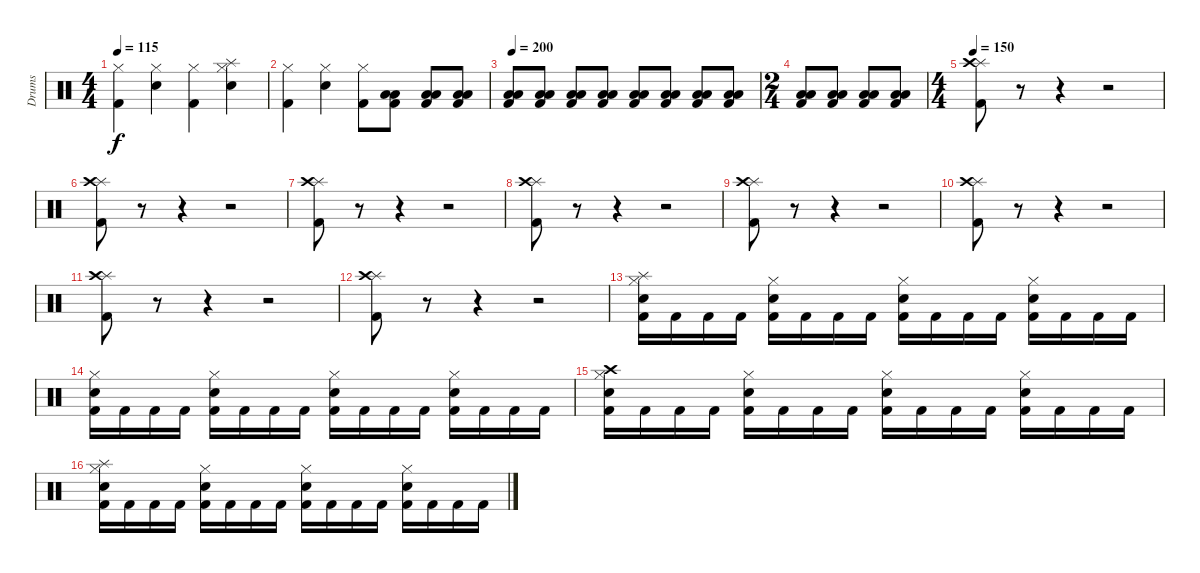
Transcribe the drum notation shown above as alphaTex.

\track ("Drums" "Drums") {instrument percussion}
\staff {score}
\articulation defaults
\ts (4 4)
\tempo 115
\clef neutral
\ks c
("Hi-Hat (closed)" "Kick (hit) 2").4{dy f} ("Hi-Hat (closed)" "Snare (hit) 2").4 ("Hi-Hat (closed)" "Kick (hit) 2").4 ("Hi-Hat (closed)" "Snare (hit) 2" "Splash (hit)").4 |
("Hi-Hat (closed)" "Kick (hit) 2").4 ("Hi-Hat (closed)" "Snare (hit) 2").4 ("Hi-Hat (closed)" "Kick (hit) 2").8 ("Low Floor Tom (hit)" "Low Floor Tom (hit)" "Kick (hit) 2").8 ("Low Floor Tom (hit)" "Low Floor Tom (hit)" "Kick (hit) 2").8 ("Low Floor Tom (hit)" "Low Floor Tom (hit)" "Kick (hit) 2").8 |
\tempo 200
("Low Floor Tom (hit)" "Low Floor Tom (hit)" "Kick (hit) 2").8 ("Low Floor Tom (hit)" "Low Floor Tom (hit)" "Kick (hit) 2").8 ("Low Floor Tom (hit)" "Low Floor Tom (hit)" "Kick (hit) 2").8 ("Low Floor Tom (hit)" "Low Floor Tom (hit)" "Kick (hit) 2").8 ("Low Floor Tom (hit)" "Low Floor Tom (hit)" "Kick (hit) 2").8 ("Low Floor Tom (hit)" "Low Floor Tom (hit)" "Kick (hit) 2").8 ("Low Floor Tom (hit)" "Low Floor Tom (hit)" "Kick (hit) 2").8 ("Low Floor Tom (hit)" "Low Floor Tom (hit)" "Kick (hit) 2").8 |
\ts (2 4)
("Low Floor Tom (hit)" "Low Floor Tom (hit)" "Kick (hit) 2").8 ("Low Floor Tom (hit)" "Low Floor Tom (hit)" "Kick (hit) 2").8 ("Low Floor Tom (hit)" "Low Floor Tom (hit)" "Kick (hit) 2").8 ("Low Floor Tom (hit)" "Low Floor Tom (hit)" "Kick (hit) 2").8 |
\ts (4 4)
\tempo 150
("Splash (hit)" "Crash high (hit)" "Kick (hit) 2").8 r.8 r.4 r.2 |
("Splash (hit)" "Crash high (hit)" "Kick (hit) 2").8 r.8 r.4 r.2 |
("Splash (hit)" "Crash high (hit)" "Kick (hit) 2").8 r.8 r.4 r.2 |
("Splash (hit)" "Crash high (hit)" "Kick (hit) 2").8 r.8 r.4 r.2 |
("Splash (hit)" "Crash high (hit)" "Kick (hit) 2").8 r.8 r.4 r.2 |
("Splash (hit)" "Crash high (hit)" "Kick (hit) 2").8 r.8 r.4 r.2 |
("Splash (hit)" "Crash high (hit)" "Kick (hit) 2").8 r.8 r.4 r.2 |
("Splash (hit)" "Crash high (hit)" "Kick (hit) 2").8 r.8 r.4 r.2 |
("Kick (hit) 2" "Hi-Hat (closed)" "Snare (hit) 2" "Splash (hit)").16 "Kick (hit) 2".16 "Kick (hit) 2".16 "Kick (hit) 2".16 ("Kick (hit) 2" "Hi-Hat (closed)" "Snare (hit) 2").16 "Kick (hit) 2".16 "Kick (hit) 2".16 "Kick (hit) 2".16 ("Kick (hit) 2" "Hi-Hat (closed)" "Snare (hit) 2").16 "Kick (hit) 2".16 "Kick (hit) 2".16 "Kick (hit) 2".16 ("Kick (hit) 2" "Hi-Hat (closed)" "Snare (hit) 2").16 "Kick (hit) 2".16 "Kick (hit) 2".16 "Kick (hit) 2".16 |
("Kick (hit) 2" "Hi-Hat (closed)" "Snare (hit) 2").16 "Kick (hit) 2".16 "Kick (hit) 2".16 "Kick (hit) 2".16 ("Kick (hit) 2" "Hi-Hat (closed)" "Snare (hit) 2").16 "Kick (hit) 2".16 "Kick (hit) 2".16 "Kick (hit) 2".16 ("Kick (hit) 2" "Hi-Hat (closed)" "Snare (hit) 2").16 "Kick (hit) 2".16 "Kick (hit) 2".16 "Kick (hit) 2".16 ("Kick (hit) 2" "Hi-Hat (closed)" "Snare (hit) 2").16 "Kick (hit) 2".16 "Kick (hit) 2".16 "Kick (hit) 2".16 |
("Kick (hit) 2" "Hi-Hat (closed)" "Snare (hit) 2" "Crash high (hit)").16 "Kick (hit) 2".16 "Kick (hit) 2".16 "Kick (hit) 2".16 ("Kick (hit) 2" "Hi-Hat (closed)" "Snare (hit) 2").16 "Kick (hit) 2".16 "Kick (hit) 2".16 "Kick (hit) 2".16 ("Kick (hit) 2" "Hi-Hat (closed)" "Snare (hit) 2").16 "Kick (hit) 2".16 "Kick (hit) 2".16 "Kick (hit) 2".16 ("Kick (hit) 2" "Hi-Hat (closed)" "Snare (hit) 2").16 "Kick (hit) 2".16 "Kick (hit) 2".16 "Kick (hit) 2".16 |
("Kick (hit) 2" "Hi-Hat (closed)" "Snare (hit) 2" "Splash (hit)").16 "Kick (hit) 2".16 "Kick (hit) 2".16 "Kick (hit) 2".16 ("Kick (hit) 2" "Hi-Hat (closed)" "Snare (hit) 2").16 "Kick (hit) 2".16 "Kick (hit) 2".16 "Kick (hit) 2".16 ("Kick (hit) 2" "Hi-Hat (closed)" "Snare (hit) 2").16 "Kick (hit) 2".16 "Kick (hit) 2".16 "Kick (hit) 2".16 ("Kick (hit) 2" "Hi-Hat (closed)" "Snare (hit) 2").16 "Kick (hit) 2".16 "Kick (hit) 2".16 "Kick (hit) 2".16
